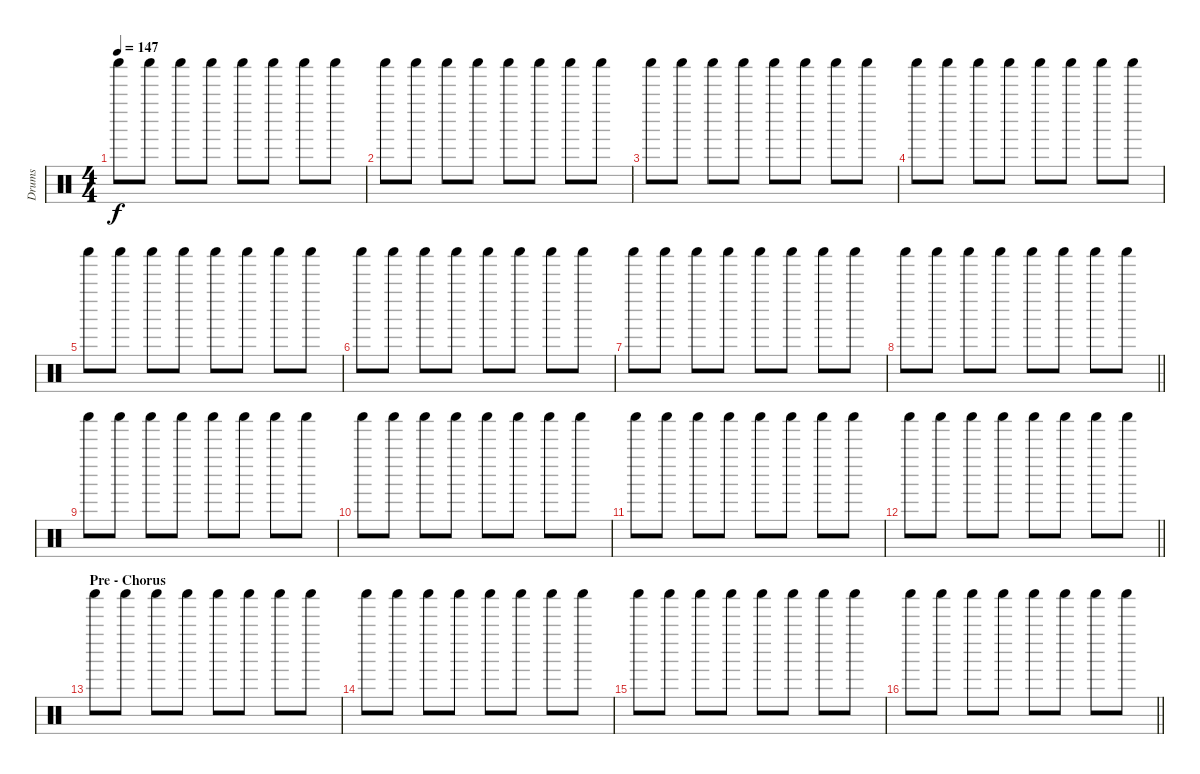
\track ("Drums" "Drums") {instrument percussion}
\staff {score}
\articulation defaults
\ts (4 4)
\tempo 147
\clef neutral
\ks c "Shaker (hit)".8{dy f} "Shaker (hit)".8 "Shaker (hit)".8 "Shaker (hit)".8 "Shaker (hit)".8 "Shaker (hit)".8 "Shaker (hit)".8 "Shaker (hit)".8
|
"Shaker (hit)".8 "Shaker (hit)".8 "Shaker (hit)".8 "Shaker (hit)".8 "Shaker (hit)".8 "Shaker (hit)".8 "Shaker (hit)".8 "Shaker (hit)".8 |
"Shaker (hit)".8 "Shaker (hit)".8 "Shaker (hit)".8 "Shaker (hit)".8 "Shaker (hit)".8 "Shaker (hit)".8 "Shaker (hit)".8 "Shaker (hit)".8 |
"Shaker (hit)".8 "Shaker (hit)".8 "Shaker (hit)".8 "Shaker (hit)".8 "Shaker (hit)".8 "Shaker (hit)".8 "Shaker (hit)".8 "Shaker (hit)".8 |
"Shaker (hit)".8 "Shaker (hit)".8 "Shaker (hit)".8 "Shaker (hit)".8 "Shaker (hit)".8 "Shaker (hit)".8 "Shaker (hit)".8 "Shaker (hit)".8 |
"Shaker (hit)".8 "Shaker (hit)".8 "Shaker (hit)".8 "Shaker (hit)".8 "Shaker (hit)".8 "Shaker (hit)".8 "Shaker (hit)".8 "Shaker (hit)".8 |
"Shaker (hit)".8 "Shaker (hit)".8 "Shaker (hit)".8 "Shaker (hit)".8 "Shaker (hit)".8 "Shaker (hit)".8 "Shaker (hit)".8 "Shaker (hit)".8 |
\barLineRight lightlight "Shaker (hit)".8 "Shaker (hit)".8 "Shaker (hit)".8 "Shaker (hit)".8 "Shaker (hit)".8 "Shaker (hit)".8 "Shaker (hit)".8 "Shaker (hit)".8
|
"Shaker (hit)".8 "Shaker (hit)".8 "Shaker (hit)".8 "Shaker (hit)".8 "Shaker (hit)".8 "Shaker (hit)".8 "Shaker (hit)".8 "Shaker (hit)".8 |
"Shaker (hit)".8 "Shaker (hit)".8 "Shaker (hit)".8 "Shaker (hit)".8 "Shaker (hit)".8 "Shaker (hit)".8 "Shaker (hit)".8 "Shaker (hit)".8 |
"Shaker (hit)".8 "Shaker (hit)".8 "Shaker (hit)".8 "Shaker (hit)".8 "Shaker (hit)".8 "Shaker (hit)".8 "Shaker (hit)".8 "Shaker (hit)".8 |
\barLineRight lightlight "Shaker (hit)".8 "Shaker (hit)".8 "Shaker (hit)".8 "Shaker (hit)".8 "Shaker (hit)".8 "Shaker (hit)".8 "Shaker (hit)".8 "Shaker (hit)".8
|
\section ("" "Pre - Chorus")
"Shaker (hit)".8 "Shaker (hit)".8 "Shaker (hit)".8 "Shaker (hit)".8 "Shaker (hit)".8 "Shaker (hit)".8 "Shaker (hit)".8 "Shaker (hit)".8 |
"Shaker (hit)".8 "Shaker (hit)".8 "Shaker (hit)".8 "Shaker (hit)".8 "Shaker (hit)".8 "Shaker (hit)".8 "Shaker (hit)".8 "Shaker (hit)".8 |
"Shaker (hit)".8 "Shaker (hit)".8 "Shaker (hit)".8 "Shaker (hit)".8 "Shaker (hit)".8 "Shaker (hit)".8 "Shaker (hit)".8 "Shaker (hit)".8 |
\barLineRight lightlight "Shaker (hit)".8 "Shaker (hit)".8 "Shaker (hit)".8 "Shaker (hit)".8 "Shaker (hit)".8 "Shaker (hit)".8 "Shaker (hit)".8 "Shaker (hit)".8
